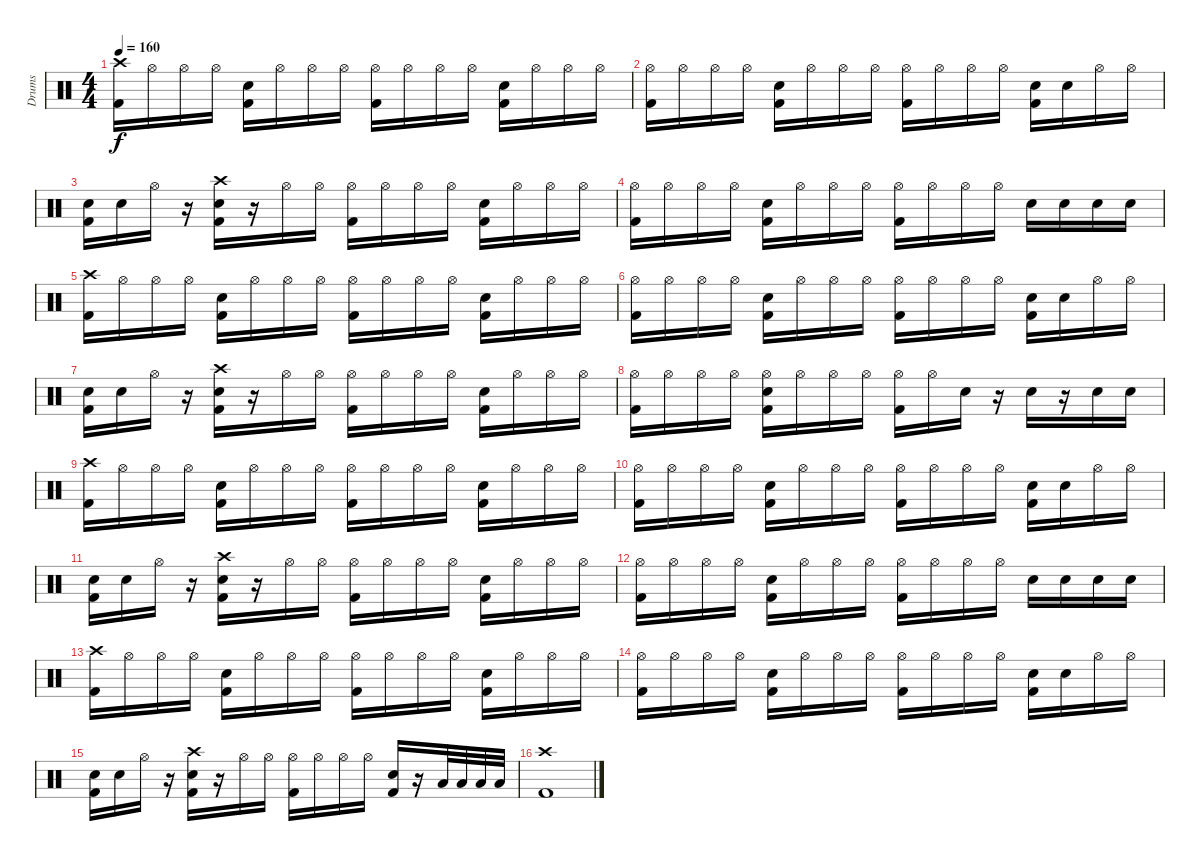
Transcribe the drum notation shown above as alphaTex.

\track ("Drums" "Drums") {instrument percussion}
\staff {score}
\articulation defaults
\ts (4 4)
\tempo 160
\clef neutral
\ks c
("Crash high (hit)" "Kick (hit) 2").16{dy f} "Hi-Hat (open)".16 "Hi-Hat (open)".16 "Hi-Hat (open)".16 ("Electric Snare (hit)" "Kick (hit) 2").16 "Hi-Hat (open)".16 "Hi-Hat (open)".16 "Hi-Hat (open)".16 ("Hi-Hat (open)" "Kick (hit) 2").16 "Hi-Hat (open)".16 "Hi-Hat (open)".16 "Hi-Hat (open)".16 ("Electric Snare (hit)" "Kick (hit) 2").16 "Hi-Hat (open)".16 "Hi-Hat (open)".16 "Hi-Hat (open)".16 |
("Hi-Hat (open)" "Kick (hit) 2").16 "Hi-Hat (open)".16 "Hi-Hat (open)".16 "Hi-Hat (open)".16 ("Electric Snare (hit)" "Kick (hit) 2").16 "Hi-Hat (open)".16 "Hi-Hat (open)".16 "Hi-Hat (open)".16 ("Hi-Hat (open)" "Kick (hit) 2").16 "Hi-Hat (open)".16 "Hi-Hat (open)".16 "Hi-Hat (open)".16 ("Electric Snare (hit)" "Kick (hit) 2").16 "Electric Snare (hit)".16 "Hi-Hat (open)".16 "Hi-Hat (open)".16 |
("Electric Snare (hit)" "Kick (hit) 2").16 "Electric Snare (hit)".16 "Hi-Hat (open)".16 r.16 ("Crash high (hit)" "Electric Snare (hit)" "Kick (hit) 2").16 r.16 "Hi-Hat (open)".16 "Hi-Hat (open)".16 ("Hi-Hat (open)" "Kick (hit) 2").16 "Hi-Hat (open)".16 "Hi-Hat (open)".16 "Hi-Hat (open)".16 ("Electric Snare (hit)" "Kick (hit) 2").16 "Hi-Hat (open)".16 "Hi-Hat (open)".16 "Hi-Hat (open)".16 |
("Hi-Hat (open)" "Kick (hit) 2").16 "Hi-Hat (open)".16 "Hi-Hat (open)".16 "Hi-Hat (open)".16 ("Electric Snare (hit)" "Kick (hit) 2").16 "Hi-Hat (open)".16 "Hi-Hat (open)".16 "Hi-Hat (open)".16 ("Hi-Hat (open)" "Kick (hit) 2").16 "Hi-Hat (open)".16 "Hi-Hat (open)".16 "Hi-Hat (open)".16 "Electric Snare (hit)".16 "Electric Snare (hit)".16 "Electric Snare (hit)".16 "Electric Snare (hit)".16 |
("Crash high (hit)" "Kick (hit) 2").16 "Hi-Hat (open)".16 "Hi-Hat (open)".16 "Hi-Hat (open)".16 ("Electric Snare (hit)" "Kick (hit) 2").16 "Hi-Hat (open)".16 "Hi-Hat (open)".16 "Hi-Hat (open)".16 ("Hi-Hat (open)" "Kick (hit) 2").16 "Hi-Hat (open)".16 "Hi-Hat (open)".16 "Hi-Hat (open)".16 ("Electric Snare (hit)" "Kick (hit) 2").16 "Hi-Hat (open)".16 "Hi-Hat (open)".16 "Hi-Hat (open)".16 |
("Hi-Hat (open)" "Kick (hit) 2").16 "Hi-Hat (open)".16 "Hi-Hat (open)".16 "Hi-Hat (open)".16 ("Electric Snare (hit)" "Kick (hit) 2").16 "Hi-Hat (open)".16 "Hi-Hat (open)".16 "Hi-Hat (open)".16 ("Hi-Hat (open)" "Kick (hit) 2").16 "Hi-Hat (open)".16 "Hi-Hat (open)".16 "Hi-Hat (open)".16 ("Electric Snare (hit)" "Kick (hit) 2").16 "Electric Snare (hit)".16 "Hi-Hat (open)".16 "Hi-Hat (open)".16 |
("Electric Snare (hit)" "Kick (hit) 2").16 "Electric Snare (hit)".16 "Hi-Hat (open)".16 r.16 ("Crash high (hit)" "Electric Snare (hit)" "Kick (hit) 2").16 r.16 "Hi-Hat (open)".16 "Hi-Hat (open)".16 ("Hi-Hat (open)" "Kick (hit) 2").16 "Hi-Hat (open)".16 "Hi-Hat (open)".16 "Hi-Hat (open)".16 ("Electric Snare (hit)" "Kick (hit) 2").16 "Hi-Hat (open)".16 "Hi-Hat (open)".16 "Hi-Hat (open)".16 |
("Hi-Hat (open)" "Kick (hit) 2").16 "Hi-Hat (open)".16 "Hi-Hat (open)".16 "Hi-Hat (open)".16 ("Hi-Hat (open)" "Electric Snare (hit)" "Kick (hit) 2").16 "Hi-Hat (open)".16 "Hi-Hat (open)".16 "Hi-Hat (open)".16 ("Hi-Hat (open)" "Kick (hit) 2").16 "Hi-Hat (open)".16 "Electric Snare (hit)".16 r.16 "Electric Snare (hit)".16 r.16 "Electric Snare (hit)".16 "Electric Snare (hit)".16 |
("Crash high (hit)" "Kick (hit) 2").16 "Hi-Hat (open)".16 "Hi-Hat (open)".16 "Hi-Hat (open)".16 ("Electric Snare (hit)" "Kick (hit) 2").16 "Hi-Hat (open)".16 "Hi-Hat (open)".16 "Hi-Hat (open)".16 ("Hi-Hat (open)" "Kick (hit) 2").16 "Hi-Hat (open)".16 "Hi-Hat (open)".16 "Hi-Hat (open)".16 ("Electric Snare (hit)" "Kick (hit) 2").16 "Hi-Hat (open)".16 "Hi-Hat (open)".16 "Hi-Hat (open)".16 |
("Hi-Hat (open)" "Kick (hit) 2").16 "Hi-Hat (open)".16 "Hi-Hat (open)".16 "Hi-Hat (open)".16 ("Electric Snare (hit)" "Kick (hit) 2").16 "Hi-Hat (open)".16 "Hi-Hat (open)".16 "Hi-Hat (open)".16 ("Hi-Hat (open)" "Kick (hit) 2").16 "Hi-Hat (open)".16 "Hi-Hat (open)".16 "Hi-Hat (open)".16 ("Electric Snare (hit)" "Kick (hit) 2").16 "Electric Snare (hit)".16 "Hi-Hat (open)".16 "Hi-Hat (open)".16 |
("Electric Snare (hit)" "Kick (hit) 2").16 "Electric Snare (hit)".16 "Hi-Hat (open)".16 r.16 ("Crash high (hit)" "Electric Snare (hit)" "Kick (hit) 2").16 r.16 "Hi-Hat (open)".16 "Hi-Hat (open)".16 ("Hi-Hat (open)" "Kick (hit) 2").16 "Hi-Hat (open)".16 "Hi-Hat (open)".16 "Hi-Hat (open)".16 ("Electric Snare (hit)" "Kick (hit) 2").16 "Hi-Hat (open)".16 "Hi-Hat (open)".16 "Hi-Hat (open)".16 |
("Hi-Hat (open)" "Kick (hit) 2").16 "Hi-Hat (open)".16 "Hi-Hat (open)".16 "Hi-Hat (open)".16 ("Electric Snare (hit)" "Kick (hit) 2").16 "Hi-Hat (open)".16 "Hi-Hat (open)".16 "Hi-Hat (open)".16 ("Hi-Hat (open)" "Kick (hit) 2").16 "Hi-Hat (open)".16 "Hi-Hat (open)".16 "Hi-Hat (open)".16 "Electric Snare (hit)".16 "Electric Snare (hit)".16 "Electric Snare (hit)".16 "Electric Snare (hit)".16 |
("Crash high (hit)" "Kick (hit) 2").16 "Hi-Hat (open)".16 "Hi-Hat (open)".16 "Hi-Hat (open)".16 ("Electric Snare (hit)" "Kick (hit) 2").16 "Hi-Hat (open)".16 "Hi-Hat (open)".16 "Hi-Hat (open)".16 ("Hi-Hat (open)" "Kick (hit) 2").16 "Hi-Hat (open)".16 "Hi-Hat (open)".16 "Hi-Hat (open)".16 ("Electric Snare (hit)" "Kick (hit) 2").16 "Hi-Hat (open)".16 "Hi-Hat (open)".16 "Hi-Hat (open)".16 |
("Hi-Hat (open)" "Kick (hit) 2").16 "Hi-Hat (open)".16 "Hi-Hat (open)".16 "Hi-Hat (open)".16 ("Electric Snare (hit)" "Kick (hit) 2").16 "Hi-Hat (open)".16 "Hi-Hat (open)".16 "Hi-Hat (open)".16 ("Hi-Hat (open)" "Kick (hit) 2").16 "Hi-Hat (open)".16 "Hi-Hat (open)".16 "Hi-Hat (open)".16 ("Electric Snare (hit)" "Kick (hit) 2").16 "Electric Snare (hit)".16 "Hi-Hat (open)".16 "Hi-Hat (open)".16 |
("Electric Snare (hit)" "Kick (hit) 2").16 "Electric Snare (hit)".16 "Hi-Hat (open)".16 r.16 ("Crash high (hit)" "Electric Snare (hit)" "Kick (hit) 2").16 r.16 "Hi-Hat (open)".16 "Hi-Hat (open)".16 ("Hi-Hat (open)" "Kick (hit) 2").16 "Hi-Hat (open)".16 "Hi-Hat (open)".16 "Hi-Hat (open)".16 ("Electric Snare (hit)" "Kick (hit) 2").16 r.16 "Low Tom (hit)".32 "Low Tom (hit)".32 "Low Tom (hit)".32 "Low Tom (hit)".32 |
("Crash high (hit)" "Kick (hit) 2").1
